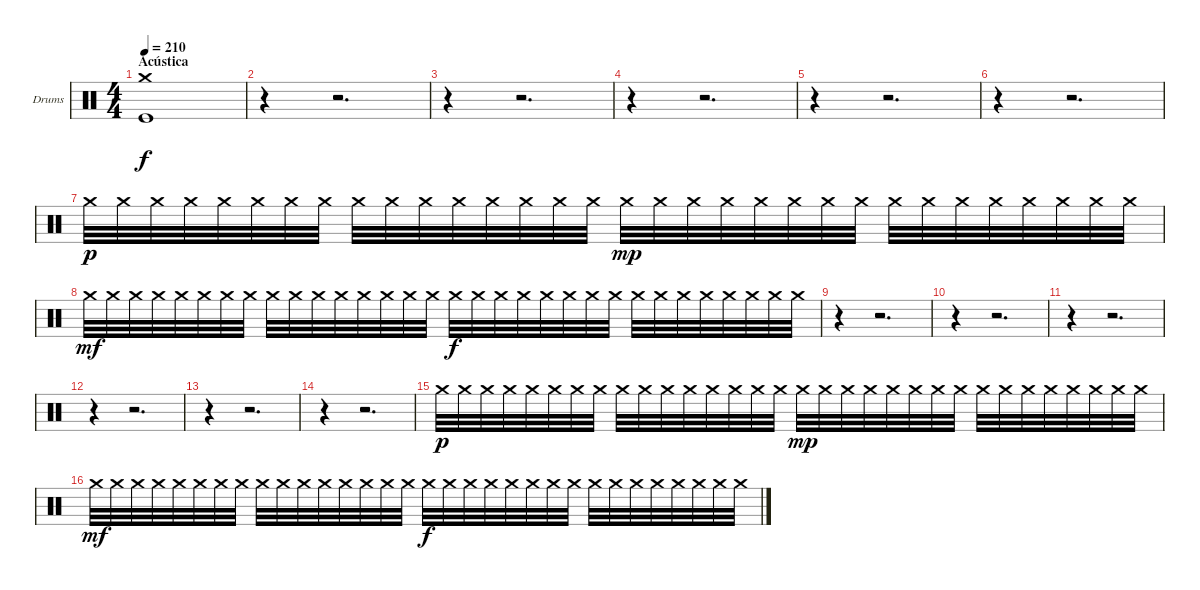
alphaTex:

\bracketExtendMode groupsimilarinstruments
\firstSystemTrackNameOrientation horizontal
\otherSystemsTrackNameOrientation horizontal
\track ("Drumkit" "Drums") {instrument percussion}
\staff {score}
\articulation defaults
\ts (4 4)
\section ("" "Acústica")
\tempo 210
\clef neutral
\ks c
("Crash medium (hit)" "Kick (hit)").1{dy f} |
r.4 r.2{d} |
r.4 r.2{d} |
r.4 r.2{d} |
r.4 r.2{d} |
r.4 r.2{d} |
"Crash medium (hit)".32{dy p} "Crash medium (hit)".32 "Crash medium (hit)".32 "Crash medium (hit)".32 "Crash medium (hit)".32 "Crash medium (hit)".32 "Crash medium (hit)".32 "Crash medium (hit)".32 "Crash medium (hit)".32 "Crash medium (hit)".32 "Crash medium (hit)".32 "Crash medium (hit)".32 "Crash medium (hit)".32 "Crash medium (hit)".32 "Crash medium (hit)".32 "Crash medium (hit)".32 "Crash medium (hit)".32{dy mp} "Crash medium (hit)".32 "Crash medium (hit)".32 "Crash medium (hit)".32 "Crash medium (hit)".32 "Crash medium (hit)".32 "Crash medium (hit)".32 "Crash medium (hit)".32 "Crash medium (hit)".32 "Crash medium (hit)".32 "Crash medium (hit)".32 "Crash medium (hit)".32 "Crash medium (hit)".32 "Crash medium (hit)".32 "Crash medium (hit)".32 "Crash medium (hit)".32 |
"Crash medium (hit)".32{dy mf} "Crash medium (hit)".32 "Crash medium (hit)".32 "Crash medium (hit)".32 "Crash medium (hit)".32 "Crash medium (hit)".32 "Crash medium (hit)".32 "Crash medium (hit)".32 "Crash medium (hit)".32 "Crash medium (hit)".32 "Crash medium (hit)".32 "Crash medium (hit)".32 "Crash medium (hit)".32 "Crash medium (hit)".32 "Crash medium (hit)".32 "Crash medium (hit)".32 "Crash medium (hit)".32{dy f} "Crash medium (hit)".32 "Crash medium (hit)".32 "Crash medium (hit)".32 "Crash medium (hit)".32 "Crash medium (hit)".32 "Crash medium (hit)".32 "Crash medium (hit)".32 "Crash medium (hit)".32 "Crash medium (hit)".32 "Crash medium (hit)".32 "Crash medium (hit)".32 "Crash medium (hit)".32 "Crash medium (hit)".32 "Crash medium (hit)".32 "Crash medium (hit)".32 |
r.4 r.2{d} |
r.4 r.2{d} |
r.4 r.2{d} |
r.4 r.2{d} |
r.4 r.2{d} |
r.4 r.2{d} |
"Crash medium (hit)".32{dy p} "Crash medium (hit)".32 "Crash medium (hit)".32 "Crash medium (hit)".32 "Crash medium (hit)".32 "Crash medium (hit)".32 "Crash medium (hit)".32 "Crash medium (hit)".32 "Crash medium (hit)".32 "Crash medium (hit)".32 "Crash medium (hit)".32 "Crash medium (hit)".32 "Crash medium (hit)".32 "Crash medium (hit)".32 "Crash medium (hit)".32 "Crash medium (hit)".32 "Crash medium (hit)".32{dy mp} "Crash medium (hit)".32 "Crash medium (hit)".32 "Crash medium (hit)".32 "Crash medium (hit)".32 "Crash medium (hit)".32 "Crash medium (hit)".32 "Crash medium (hit)".32 "Crash medium (hit)".32 "Crash medium (hit)".32 "Crash medium (hit)".32 "Crash medium (hit)".32 "Crash medium (hit)".32 "Crash medium (hit)".32 "Crash medium (hit)".32 "Crash medium (hit)".32 |
"Crash medium (hit)".32{dy mf} "Crash medium (hit)".32 "Crash medium (hit)".32 "Crash medium (hit)".32 "Crash medium (hit)".32 "Crash medium (hit)".32 "Crash medium (hit)".32 "Crash medium (hit)".32 "Crash medium (hit)".32 "Crash medium (hit)".32 "Crash medium (hit)".32 "Crash medium (hit)".32 "Crash medium (hit)".32 "Crash medium (hit)".32 "Crash medium (hit)".32 "Crash medium (hit)".32 "Crash medium (hit)".32{dy f} "Crash medium (hit)".32 "Crash medium (hit)".32 "Crash medium (hit)".32 "Crash medium (hit)".32 "Crash medium (hit)".32 "Crash medium (hit)".32 "Crash medium (hit)".32 "Crash medium (hit)".32 "Crash medium (hit)".32 "Crash medium (hit)".32 "Crash medium (hit)".32 "Crash medium (hit)".32 "Crash medium (hit)".32 "Crash medium (hit)".32 "Crash medium (hit)".32
